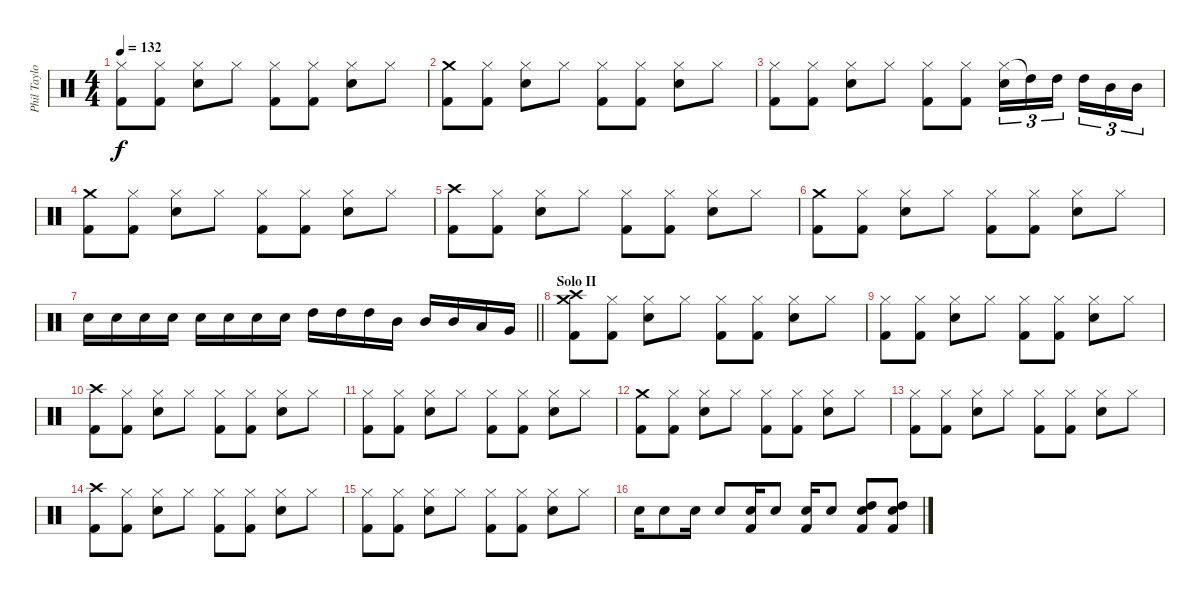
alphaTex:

\track ("Phil Taylor" "Phil Taylo") {instrument percussion}
\staff {score}
\articulation defaults
\ts (4 4)
\tempo 132
\clef neutral
\ks c
("Hi-Hat (closed)" "Kick (hit) 2").8{dy f} ("Hi-Hat (closed)" "Kick (hit) 2").8 ("Hi-Hat (closed)" "Snare (hit) 2").8 "Hi-Hat (closed)".8 ("Hi-Hat (closed)" "Kick (hit) 2").8 ("Hi-Hat (closed)" "Kick (hit) 2").8 ("Hi-Hat (closed)" "Snare (hit) 2").8 "Hi-Hat (closed)".8 |
("Crash medium (hit)" "Kick (hit) 2").8 ("Hi-Hat (closed)" "Kick (hit) 2").8 ("Hi-Hat (closed)" "Snare (hit) 2").8 "Hi-Hat (closed)".8 ("Hi-Hat (closed)" "Kick (hit) 2").8 ("Hi-Hat (closed)" "Kick (hit) 2").8 ("Hi-Hat (closed)" "Snare (hit) 2").8 "Hi-Hat (closed)".8 |
("Hi-Hat (closed)" "Kick (hit) 2").8 ("Hi-Hat (closed)" "Kick (hit) 2").8 ("Hi-Hat (closed)" "Snare (hit) 2").8 "Hi-Hat (closed)".8 ("Hi-Hat (closed)" "Kick (hit) 2").8 ("Hi-Hat (closed)" "Kick (hit) 2").8 ("Hi-Hat (closed)" "Snare (hit) 2").16{tu (3 2)} "High Tom (hit)"{t}.16{tu (3 2)} "High Tom (hit)".16{tu (3 2) beam splitsecondary} "High Tom (hit)".16{tu (3 2)} "Mid Tom (hit)".16{tu (3 2)} "Mid Tom (hit)".16{tu (3 2)} |
("Crash medium (hit)" "Kick (hit) 2").8 ("Hi-Hat (closed)" "Kick (hit) 2").8 ("Hi-Hat (closed)" "Snare (hit) 2").8 "Hi-Hat (closed)".8 ("Hi-Hat (closed)" "Kick (hit) 2").8 ("Hi-Hat (closed)" "Kick (hit) 2").8 ("Hi-Hat (closed)" "Snare (hit) 2").8 "Hi-Hat (closed)".8 |
("Crash high (hit)" "Kick (hit) 2").8 ("Hi-Hat (closed)" "Kick (hit) 2").8 ("Hi-Hat (closed)" "Snare (hit) 2").8 "Hi-Hat (closed)".8 ("Hi-Hat (closed)" "Kick (hit) 2").8 ("Hi-Hat (closed)" "Kick (hit) 2").8 ("Hi-Hat (closed)" "Snare (hit) 2").8 "Hi-Hat (closed)".8 |
("Crash medium (hit)" "Kick (hit) 2").8 ("Hi-Hat (closed)" "Kick (hit) 2").8 ("Hi-Hat (closed)" "Snare (hit) 2").8 "Hi-Hat (closed)".8 ("Hi-Hat (closed)" "Kick (hit) 2").8 ("Hi-Hat (closed)" "Kick (hit) 2").8 ("Hi-Hat (closed)" "Snare (hit) 2").8 "Hi-Hat (closed)".8 |
\barLineRight lightlight "Snare (hit) 2".16 "Snare (hit) 2".16 "Snare (hit) 2".16 "Snare (hit) 2".16 "Snare (hit) 2".16 "Snare (hit) 2".16 "Snare (hit) 2".16 "Snare (hit) 2".16 "High Tom (hit)".16 "High Tom (hit)".16 "High Tom (hit)".16 "Mid Tom (hit)".16 "Mid Tom (hit)".16 "Mid Tom (hit)".16 "Low Tom (hit)".16 "Very Low Tom (hit)".16
|
\section ("" "Solo II")
("Crash medium (hit)" "Crash high (hit)" "Kick (hit) 2").8 ("Hi-Hat (closed)" "Kick (hit) 2").8 ("Hi-Hat (closed)" "Snare (hit) 2").8 "Hi-Hat (closed)".8 ("Hi-Hat (closed)" "Kick (hit) 2").8 ("Hi-Hat (closed)" "Kick (hit) 2").8 ("Hi-Hat (closed)" "Snare (hit) 2").8 "Hi-Hat (closed)".8 |
("Hi-Hat (closed)" "Kick (hit) 2").8 ("Hi-Hat (closed)" "Kick (hit) 2").8 ("Hi-Hat (closed)" "Snare (hit) 2").8 "Hi-Hat (closed)".8 ("Hi-Hat (closed)" "Kick (hit) 2").8 ("Hi-Hat (closed)" "Kick (hit) 2").8 ("Hi-Hat (closed)" "Snare (hit) 2").8 "Hi-Hat (closed)".8 |
("Crash high (hit)" "Kick (hit) 2").8 ("Hi-Hat (closed)" "Kick (hit) 2").8 ("Hi-Hat (closed)" "Snare (hit) 2").8 "Hi-Hat (closed)".8 ("Hi-Hat (closed)" "Kick (hit) 2").8 ("Hi-Hat (closed)" "Kick (hit) 2").8 ("Hi-Hat (closed)" "Snare (hit) 2").8 "Hi-Hat (closed)".8 |
("Hi-Hat (closed)" "Kick (hit) 2").8 ("Hi-Hat (closed)" "Kick (hit) 2").8 ("Hi-Hat (closed)" "Snare (hit) 2").8 "Hi-Hat (closed)".8 ("Hi-Hat (closed)" "Kick (hit) 2").8 ("Hi-Hat (closed)" "Kick (hit) 2").8 ("Hi-Hat (closed)" "Snare (hit) 2").8 "Hi-Hat (closed)".8 |
("Crash medium (hit)" "Kick (hit) 2").8 ("Hi-Hat (closed)" "Kick (hit) 2").8 ("Hi-Hat (closed)" "Snare (hit) 2").8 "Hi-Hat (closed)".8 ("Hi-Hat (closed)" "Kick (hit) 2").8 ("Hi-Hat (closed)" "Kick (hit) 2").8 ("Hi-Hat (closed)" "Snare (hit) 2").8 "Hi-Hat (closed)".8 |
("Hi-Hat (closed)" "Kick (hit) 2").8 ("Hi-Hat (closed)" "Kick (hit) 2").8 ("Hi-Hat (closed)" "Snare (hit) 2").8 "Hi-Hat (closed)".8 ("Hi-Hat (closed)" "Kick (hit) 2").8 ("Hi-Hat (closed)" "Kick (hit) 2").8 ("Hi-Hat (closed)" "Snare (hit) 2").8 "Hi-Hat (closed)".8 |
("Crash high (hit)" "Kick (hit) 2").8 ("Hi-Hat (closed)" "Kick (hit) 2").8 ("Hi-Hat (closed)" "Snare (hit) 2").8 "Hi-Hat (closed)".8 ("Hi-Hat (closed)" "Kick (hit) 2").8 ("Hi-Hat (closed)" "Kick (hit) 2").8 ("Hi-Hat (closed)" "Snare (hit) 2").8 "Hi-Hat (closed)".8 |
("Hi-Hat (closed)" "Kick (hit) 2").8 ("Hi-Hat (closed)" "Kick (hit) 2").8 ("Hi-Hat (closed)" "Snare (hit) 2").8 "Hi-Hat (closed)".8 ("Hi-Hat (closed)" "Kick (hit) 2").8 ("Hi-Hat (closed)" "Kick (hit) 2").8 ("Hi-Hat (closed)" "Snare (hit) 2").8 "Hi-Hat (closed)".8 |
"Snare (hit) 2".16 "Snare (hit) 2".8 "Snare (hit) 2".16 "Snare (hit) 2".8 ("Snare (hit) 2" "Kick (hit) 2").16 "Snare (hit) 2".8 ("Snare (hit) 2" "Kick (hit) 2").16 "Snare (hit) 2".8 ("High Tom (hit)" "Snare (hit) 2" "Kick (hit) 2").8 ("High Tom (hit)" "Snare (hit) 2" "Kick (hit) 2").8
